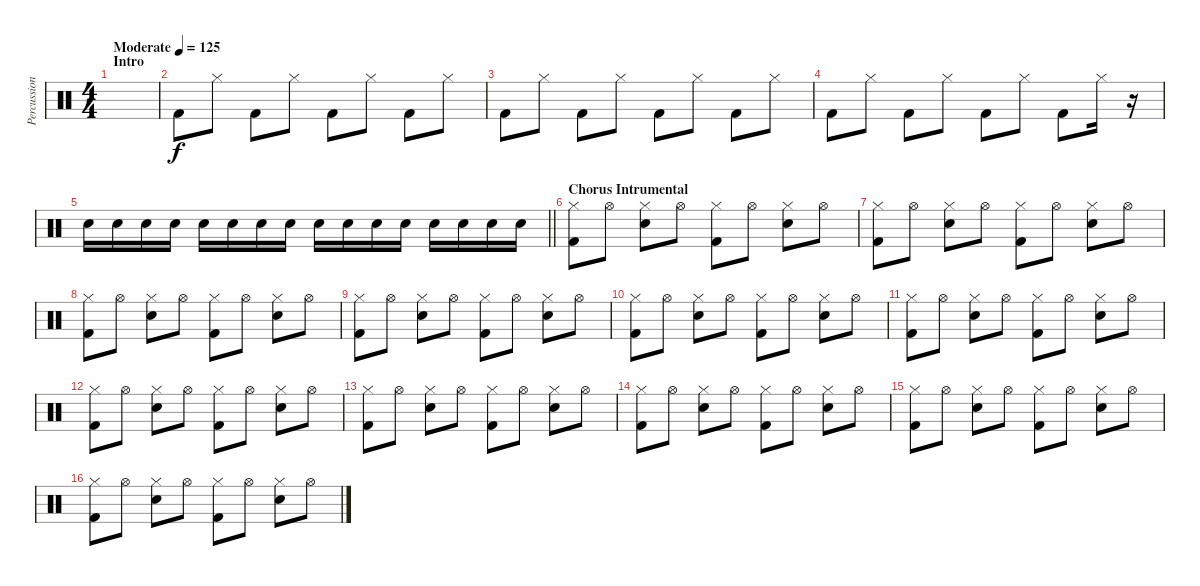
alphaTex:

\track ("Percussion" "Percussion") {instrument percussion}
\staff {score}
\articulation defaults
\ts (4 4)
\section ("" "Intro")
\tempo (125 "Moderate")
\clef neutral
\ks c
|
"Kick (hit) 2".8 "Hi-Hat (closed)".8 "Kick (hit) 2".8 "Hi-Hat (closed)".8 "Kick (hit) 2".8 "Hi-Hat (closed)".8 "Kick (hit) 2".8 "Hi-Hat (closed)".8 |
"Kick (hit) 2".8 "Hi-Hat (closed)".8 "Kick (hit) 2".8 "Hi-Hat (closed)".8 "Kick (hit) 2".8 "Hi-Hat (closed)".8 "Kick (hit) 2".8 "Hi-Hat (closed)".8 |
"Kick (hit) 2".8 "Hi-Hat (closed)".8 "Kick (hit) 2".8 "Hi-Hat (closed)".8 "Kick (hit) 2".8 "Hi-Hat (closed)".8 "Kick (hit) 2".8 "Hi-Hat (closed)".16 r.16{volume 7} |
\barLineRight lightlight "Snare (hit) 2".16{volume 13} "Snare (hit) 2".16 "Snare (hit) 2".16 "Snare (hit) 2".16 "Snare (hit) 2".16 "Snare (hit) 2".16 "Snare (hit) 2".16 "Snare (hit) 2".16 "Snare (hit) 2".16 "Snare (hit) 2".16 "Snare (hit) 2".16 "Snare (hit) 2".16 "Snare (hit) 2".16 "Snare (hit) 2".16 "Snare (hit) 2".16 "Snare (hit) 2".16
|
\section ("" "Chorus Intrumental")
("Hi-Hat (closed)" "Kick (hit) 2").8 "Hi-Hat (open)".8 ("Hi-Hat (closed)" "Snare (hit) 2").8 "Hi-Hat (open)".8 ("Hi-Hat (closed)" "Kick (hit) 2").8 "Hi-Hat (open)".8 ("Hi-Hat (closed)" "Snare (hit) 2").8 "Hi-Hat (open)".8 |
("Hi-Hat (closed)" "Kick (hit) 2").8 "Hi-Hat (open)".8 ("Hi-Hat (closed)" "Snare (hit) 2").8 "Hi-Hat (open)".8 ("Hi-Hat (closed)" "Kick (hit) 2").8 "Hi-Hat (open)".8 ("Hi-Hat (closed)" "Snare (hit) 2").8 "Hi-Hat (open)".8 |
("Hi-Hat (closed)" "Kick (hit) 2").8 "Hi-Hat (open)".8 ("Hi-Hat (closed)" "Snare (hit) 2").8 "Hi-Hat (open)".8 ("Hi-Hat (closed)" "Kick (hit) 2").8 "Hi-Hat (open)".8 ("Hi-Hat (closed)" "Snare (hit) 2").8 "Hi-Hat (open)".8 |
("Hi-Hat (closed)" "Kick (hit) 2").8 "Hi-Hat (open)".8 ("Hi-Hat (closed)" "Snare (hit) 2").8 "Hi-Hat (open)".8 ("Hi-Hat (closed)" "Kick (hit) 2").8 "Hi-Hat (open)".8 ("Hi-Hat (closed)" "Snare (hit) 2").8 "Hi-Hat (open)".8 |
("Hi-Hat (closed)" "Kick (hit) 2").8 "Hi-Hat (open)".8 ("Hi-Hat (closed)" "Snare (hit) 2").8 "Hi-Hat (open)".8 ("Hi-Hat (closed)" "Kick (hit) 2").8 "Hi-Hat (open)".8 ("Hi-Hat (closed)" "Snare (hit) 2").8 "Hi-Hat (open)".8 |
("Hi-Hat (closed)" "Kick (hit) 2").8 "Hi-Hat (open)".8 ("Hi-Hat (closed)" "Snare (hit) 2").8 "Hi-Hat (open)".8 ("Hi-Hat (closed)" "Kick (hit) 2").8 "Hi-Hat (open)".8 ("Hi-Hat (closed)" "Snare (hit) 2").8 "Hi-Hat (open)".8 |
("Hi-Hat (closed)" "Kick (hit) 2").8 "Hi-Hat (open)".8 ("Hi-Hat (closed)" "Snare (hit) 2").8 "Hi-Hat (open)".8 ("Hi-Hat (closed)" "Kick (hit) 2").8 "Hi-Hat (open)".8 ("Hi-Hat (closed)" "Snare (hit) 2").8 "Hi-Hat (open)".8 |
("Hi-Hat (closed)" "Kick (hit) 2").8 "Hi-Hat (open)".8 ("Hi-Hat (closed)" "Snare (hit) 2").8 "Hi-Hat (open)".8 ("Hi-Hat (closed)" "Kick (hit) 2").8 "Hi-Hat (open)".8 ("Hi-Hat (closed)" "Snare (hit) 2").8 "Hi-Hat (open)".8 |
("Hi-Hat (closed)" "Kick (hit) 2").8 "Hi-Hat (open)".8 ("Hi-Hat (closed)" "Snare (hit) 2").8 "Hi-Hat (open)".8 ("Hi-Hat (closed)" "Kick (hit) 2").8 "Hi-Hat (open)".8 ("Hi-Hat (closed)" "Snare (hit) 2").8 "Hi-Hat (open)".8 |
("Hi-Hat (closed)" "Kick (hit) 2").8 "Hi-Hat (open)".8 ("Hi-Hat (closed)" "Snare (hit) 2").8 "Hi-Hat (open)".8 ("Hi-Hat (closed)" "Kick (hit) 2").8 "Hi-Hat (open)".8 ("Hi-Hat (closed)" "Snare (hit) 2").8 "Hi-Hat (open)".8 |
("Hi-Hat (closed)" "Kick (hit) 2").8 "Hi-Hat (open)".8 ("Hi-Hat (closed)" "Snare (hit) 2").8 "Hi-Hat (open)".8 ("Hi-Hat (closed)" "Kick (hit) 2").8 "Hi-Hat (open)".8 ("Hi-Hat (closed)" "Snare (hit) 2").8 "Hi-Hat (open)".8
